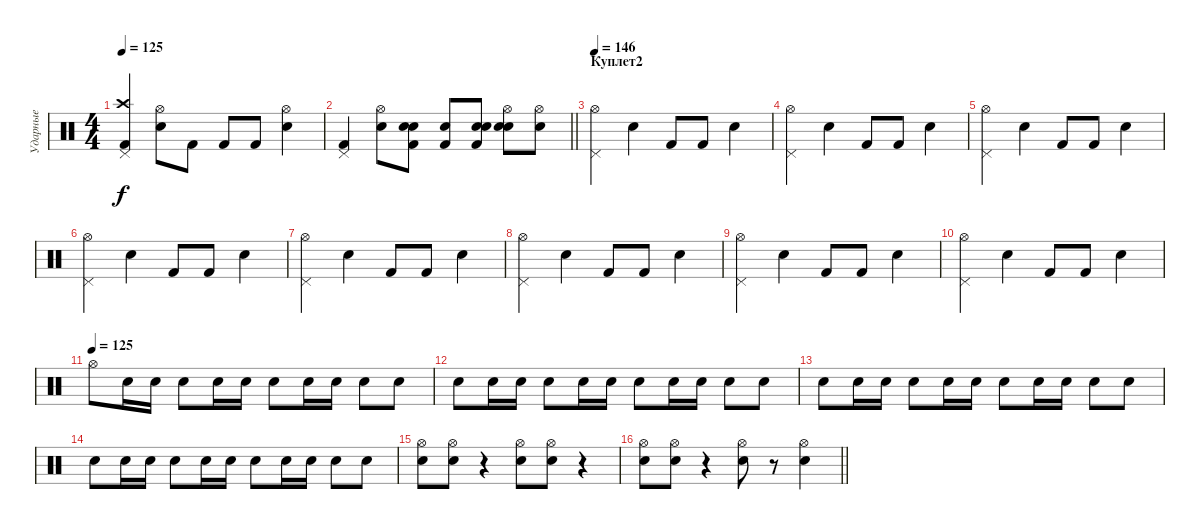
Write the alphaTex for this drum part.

\track ("Ударные" "Ударные") {instrument percussion}
\staff {score}
\articulation defaults
\ts (4 4)
\tempo 125
\clef neutral
\ks c
("Kick (hit) 2" "Crash high (hit)" "Pedal Hi-Hat (hit)").4{dy f} ("Electric Snare (hit)" "Hi-Hat (open)").8 "Kick (hit) 2".8 "Kick (hit) 2".8 "Kick (hit) 2".8 ("Electric Snare (hit)" "Hi-Hat (open)").4 |
\barLineRight lightlight
("Kick (hit) 2" "Pedal Hi-Hat (hit)").4 ("Electric Snare (hit)" "Hi-Hat (open)").8 ("Snare (hit) 2" "Electric Snare (hit)" "Kick (hit) 2").8 ("Electric Snare (hit)" "Kick (hit) 2").8 ("Snare (hit) 2" "Electric Snare (hit)" "Kick (hit) 2").8 ("Snare (hit) 2" "Electric Snare (hit)" "Hi-Hat (open)").8 ("Hi-Hat (open)" "Snare (hit) 2").8 |
\section ("" "Куплет2")
\tempo 146
("Pedal Hi-Hat (hit)" "Hi-Hat (open)").4 "Snare (hit) 2".4 "Kick (hit) 2".8 "Kick (hit) 2".8 "Snare (hit) 2".4 |
("Pedal Hi-Hat (hit)" "Hi-Hat (open)").4 "Snare (hit) 2".4 "Kick (hit) 2".8 "Kick (hit) 2".8 "Snare (hit) 2".4 |
("Pedal Hi-Hat (hit)" "Hi-Hat (open)").4 "Snare (hit) 2".4 "Kick (hit) 2".8 "Kick (hit) 2".8 "Snare (hit) 2".4 |
("Pedal Hi-Hat (hit)" "Hi-Hat (open)").4 "Snare (hit) 2".4 "Kick (hit) 2".8 "Kick (hit) 2".8 "Snare (hit) 2".4 |
("Pedal Hi-Hat (hit)" "Hi-Hat (open)").4 "Snare (hit) 2".4 "Kick (hit) 2".8 "Kick (hit) 2".8 "Snare (hit) 2".4 |
("Pedal Hi-Hat (hit)" "Hi-Hat (open)").4 "Snare (hit) 2".4 "Kick (hit) 2".8 "Kick (hit) 2".8 "Snare (hit) 2".4 |
("Pedal Hi-Hat (hit)" "Hi-Hat (open)").4 "Snare (hit) 2".4 "Kick (hit) 2".8 "Kick (hit) 2".8 "Snare (hit) 2".4 |
("Pedal Hi-Hat (hit)" "Hi-Hat (open)").4 "Snare (hit) 2".4 "Kick (hit) 2".8 "Kick (hit) 2".8 "Snare (hit) 2".4 |
\tempo (125)
"Hi-Hat (open)".8 "Snare (hit) 2".16 "Snare (hit) 2".16 "Snare (hit) 2".8 "Snare (hit) 2".16 "Snare (hit) 2".16 "Snare (hit) 2".8 "Snare (hit) 2".16 "Snare (hit) 2".16 "Snare (hit) 2".8 "Snare (hit) 2".8 |
"Electric Snare (hit)".8 "Electric Snare (hit)".16 "Electric Snare (hit)".16 "Electric Snare (hit)".8 "Electric Snare (hit)".16 "Electric Snare (hit)".16 "Electric Snare (hit)".8 "Electric Snare (hit)".16 "Electric Snare (hit)".16 "Electric Snare (hit)".8 "Electric Snare (hit)".8 |
"Snare (hit) 2".8 "Snare (hit) 2".16 "Snare (hit) 2".16 "Snare (hit) 2".8 "Snare (hit) 2".16 "Snare (hit) 2".16 "Snare (hit) 2".8 "Snare (hit) 2".16 "Snare (hit) 2".16 "Snare (hit) 2".8 "Snare (hit) 2".8 |
"Electric Snare (hit)".8 "Electric Snare (hit)".16 "Electric Snare (hit)".16 "Electric Snare (hit)".8 "Electric Snare (hit)".16 "Electric Snare (hit)".16 "Electric Snare (hit)".8 "Electric Snare (hit)".16 "Electric Snare (hit)".16 "Electric Snare (hit)".8 "Electric Snare (hit)".8 |
("Hi-Hat (open)" "Snare (hit) 2").8 ("Hi-Hat (open)" "Snare (hit) 2").8 r.4 ("Hi-Hat (open)" "Snare (hit) 2").8 ("Hi-Hat (open)" "Snare (hit) 2").8 r.4 |
\barLineRight lightlight
("Hi-Hat (open)" "Snare (hit) 2").8 ("Hi-Hat (open)" "Snare (hit) 2").8 r.4 ("Hi-Hat (open)" "Snare (hit) 2").8 r.8 ("Hi-Hat (open)" "Snare (hit) 2").4
